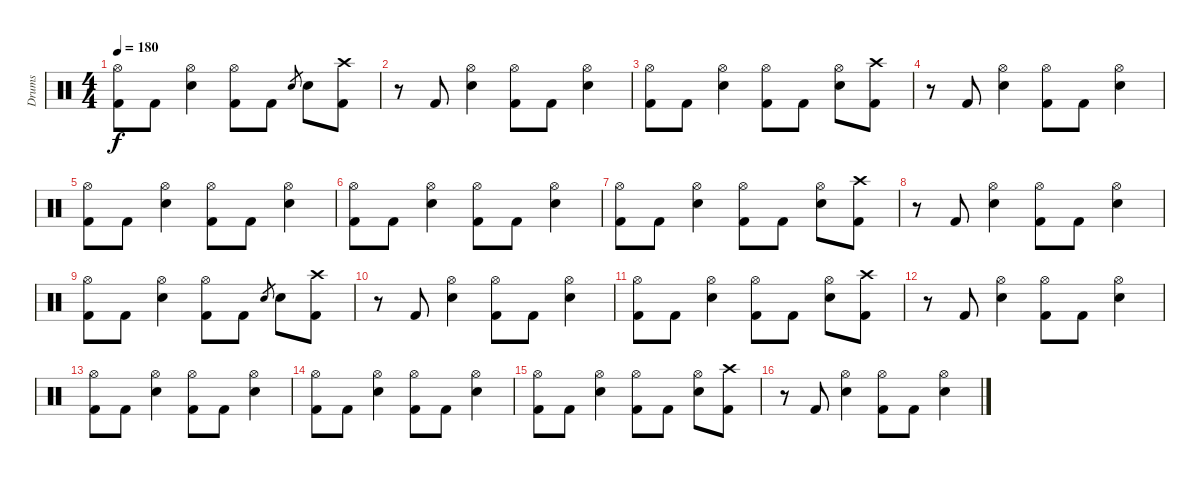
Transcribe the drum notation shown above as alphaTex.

\track ("Drums" "Drums") {instrument percussion}
\staff {score}
\articulation defaults
\ts (4 4)
\tempo 180
\clef neutral
\ks c
("Hi-Hat (open)" "Kick (hit) 2").8{dy f} "Kick (hit) 2".8 ("Hi-Hat (open)" "Electric Snare (hit)").4 ("Hi-Hat (open)" "Kick (hit) 2").8 "Kick (hit) 2".8 "Electric Snare (hit)".8{gr} "Electric Snare (hit)".8 ("Crash high (hit)" "Kick (hit) 2").8 |
r.8 "Kick (hit) 2".8 ("Hi-Hat (open)" "Electric Snare (hit)").4 ("Hi-Hat (open)" "Kick (hit) 2").8 "Kick (hit) 2".8 ("Hi-Hat (open)" "Electric Snare (hit)").4 |
("Hi-Hat (open)" "Kick (hit) 2").8 "Kick (hit) 2".8 ("Hi-Hat (open)" "Electric Snare (hit)").4 ("Hi-Hat (open)" "Kick (hit) 2").8 "Kick (hit) 2".8 ("Hi-Hat (open)" "Electric Snare (hit)").8 ("Crash high (hit)" "Kick (hit) 2").8 |
r.8 "Kick (hit) 2".8 ("Hi-Hat (open)" "Electric Snare (hit)").4 ("Hi-Hat (open)" "Kick (hit) 2").8 "Kick (hit) 2".8 ("Hi-Hat (open)" "Electric Snare (hit)").4 |
("Hi-Hat (open)" "Kick (hit) 2").8 "Kick (hit) 2".8 ("Hi-Hat (open)" "Electric Snare (hit)").4 ("Hi-Hat (open)" "Kick (hit) 2").8 "Kick (hit) 2".8 ("Hi-Hat (open)" "Electric Snare (hit)").4 |
("Hi-Hat (open)" "Kick (hit) 2").8 "Kick (hit) 2".8 ("Hi-Hat (open)" "Electric Snare (hit)").4 ("Hi-Hat (open)" "Kick (hit) 2").8 "Kick (hit) 2".8 ("Hi-Hat (open)" "Electric Snare (hit)").4 |
("Hi-Hat (open)" "Kick (hit) 2").8 "Kick (hit) 2".8 ("Hi-Hat (open)" "Electric Snare (hit)").4 ("Hi-Hat (open)" "Kick (hit) 2").8 "Kick (hit) 2".8 ("Hi-Hat (open)" "Electric Snare (hit)").8 ("Crash high (hit)" "Kick (hit) 2").8 |
r.8 "Kick (hit) 2".8 ("Hi-Hat (open)" "Electric Snare (hit)").4 ("Hi-Hat (open)" "Kick (hit) 2").8 "Kick (hit) 2".8 ("Hi-Hat (open)" "Electric Snare (hit)").4 |
("Hi-Hat (open)" "Kick (hit) 2").8 "Kick (hit) 2".8 ("Hi-Hat (open)" "Electric Snare (hit)").4 ("Hi-Hat (open)" "Kick (hit) 2").8 "Kick (hit) 2".8 "Electric Snare (hit)".8{gr} "Electric Snare (hit)".8 ("Crash high (hit)" "Kick (hit) 2").8 |
r.8 "Kick (hit) 2".8 ("Hi-Hat (open)" "Electric Snare (hit)").4 ("Hi-Hat (open)" "Kick (hit) 2").8 "Kick (hit) 2".8 ("Hi-Hat (open)" "Electric Snare (hit)").4 |
("Hi-Hat (open)" "Kick (hit) 2").8 "Kick (hit) 2".8 ("Hi-Hat (open)" "Electric Snare (hit)").4 ("Hi-Hat (open)" "Kick (hit) 2").8 "Kick (hit) 2".8 ("Hi-Hat (open)" "Electric Snare (hit)").8 ("Crash high (hit)" "Kick (hit) 2").8 |
r.8 "Kick (hit) 2".8 ("Hi-Hat (open)" "Electric Snare (hit)").4 ("Hi-Hat (open)" "Kick (hit) 2").8 "Kick (hit) 2".8 ("Hi-Hat (open)" "Electric Snare (hit)").4 |
("Hi-Hat (open)" "Kick (hit) 2").8 "Kick (hit) 2".8 ("Hi-Hat (open)" "Electric Snare (hit)").4 ("Hi-Hat (open)" "Kick (hit) 2").8 "Kick (hit) 2".8 ("Hi-Hat (open)" "Electric Snare (hit)").4 |
("Hi-Hat (open)" "Kick (hit) 2").8 "Kick (hit) 2".8 ("Hi-Hat (open)" "Electric Snare (hit)").4 ("Hi-Hat (open)" "Kick (hit) 2").8 "Kick (hit) 2".8 ("Hi-Hat (open)" "Electric Snare (hit)").4 |
("Hi-Hat (open)" "Kick (hit) 2").8 "Kick (hit) 2".8 ("Hi-Hat (open)" "Electric Snare (hit)").4 ("Hi-Hat (open)" "Kick (hit) 2").8 "Kick (hit) 2".8 ("Hi-Hat (open)" "Electric Snare (hit)").8 ("Crash high (hit)" "Kick (hit) 2").8 |
r.8 "Kick (hit) 2".8 ("Hi-Hat (open)" "Electric Snare (hit)").4 ("Hi-Hat (open)" "Kick (hit) 2").8 "Kick (hit) 2".8 ("Hi-Hat (open)" "Electric Snare (hit)").4
